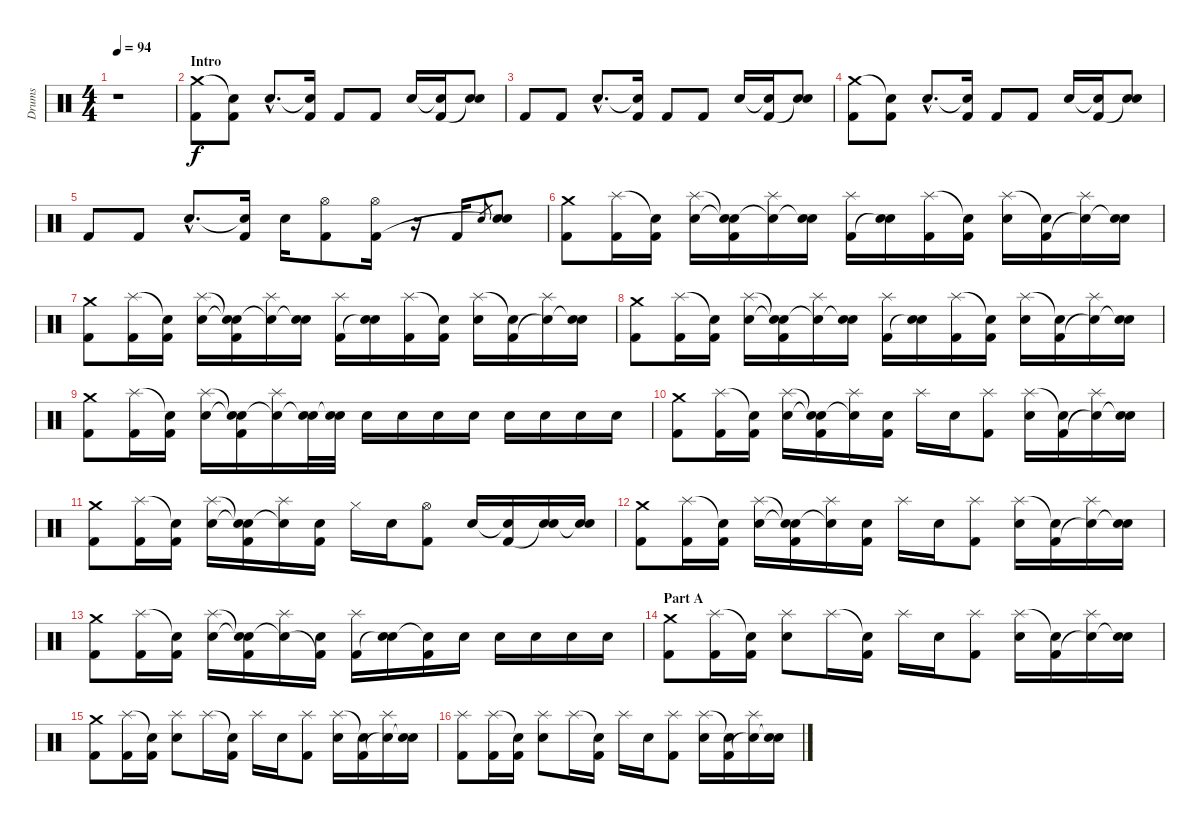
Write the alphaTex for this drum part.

\track ("Drums" "Drums") {instrument percussion}
\staff {score}
\articulation defaults
\ts (4 4)
\tempo 94
\clef neutral
\ks c
r.1{dy f} |
\section ("" "Intro")
("Crash medium (hit)" "Kick (hit) 2").8 ("Snare (hit)"{t} "Kick (hit) 2").8 "Electric Snare (hit)"{hac}.8{d} ("Snare (hit)"{t} "Kick (hit) 2").16 "Kick (hit) 2".8 "Kick (hit) 2".8 "Electric Snare (hit)".16 ("Snare (hit)"{t} "Kick (hit) 2").16 ("Electric Snare (hit)" "Snare (hit)"{t}).8 |
"Kick (hit) 2".8 "Kick (hit) 2".8 "Electric Snare (hit)"{hac}.8{d} ("Snare (hit)"{t} "Kick (hit) 2").16 "Kick (hit) 2".8 "Kick (hit) 2".8 "Electric Snare (hit)".16 ("Snare (hit)"{t} "Kick (hit) 2").16 ("Electric Snare (hit)" "Snare (hit)"{t}).8 |
("Crash medium (hit)" "Kick (hit) 2").8 ("Snare (hit)"{t} "Kick (hit) 2").8 "Electric Snare (hit)"{hac}.8{d} ("Snare (hit)"{t} "Kick (hit) 2").16 "Kick (hit) 2".8 "Kick (hit) 2".8 "Electric Snare (hit)".16 ("Snare (hit)"{t} "Kick (hit) 2").16 ("Electric Snare (hit)" "Snare (hit)"{t}).8 |
"Kick (hit) 2".8 "Kick (hit) 2".8 "Electric Snare (hit)"{hac}.8{d} ("Snare (hit)"{t} "Kick (hit) 2").16 "Electric Snare (hit)".16 ("Hi-Hat (open)" "Kick (hit) 2").8 ("Hi-Hat (open)" "Kick (hit) 2").16 r.16 "Kick (hit) 2".16 "Electric Snare (hit)".8{gr} ("Electric Snare (hit)" "Snare (hit)"{t}).8 |
("Crash medium (hit)" "Kick (hit) 2").8 ("Splash (hit)" "Kick (hit) 2").16 ("Snare (hit)"{t} "Kick (hit) 2").16 ("Splash (hit)" "Electric Snare (hit)").16 ("Snare (hit)"{t} "Snare (hit)"{t} "Kick (hit) 2").16 ("Splash (hit)" "Snare (hit)"{t}).16 ("Electric Snare (hit)" "Snare (hit)"{t}).16 ("Splash (hit)" "Kick (hit) 2").16 ("Electric Snare (hit)" "Snare (hit)"{t}).16 ("Splash (hit)" "Kick (hit) 2").16 ("Snare (hit)"{t} "Kick (hit) 2").16 ("Splash (hit)" "Electric Snare (hit)").16 ("Snare (hit)"{t} "Kick (hit) 2").16 ("Splash (hit)" "Snare (hit)"{t}).16 ("Electric Snare (hit)" "Snare (hit)"{t}).16 |
("Crash medium (hit)" "Kick (hit) 2").8 ("Splash (hit)" "Kick (hit) 2").16 ("Snare (hit)"{t} "Kick (hit) 2").16 ("Splash (hit)" "Electric Snare (hit)").16 ("Snare (hit)"{t} "Snare (hit)"{t} "Kick (hit) 2").16 ("Splash (hit)" "Snare (hit)"{t}).16 ("Electric Snare (hit)" "Snare (hit)"{t}).16 ("Splash (hit)" "Kick (hit) 2").16 ("Electric Snare (hit)" "Snare (hit)"{t}).16 ("Splash (hit)" "Kick (hit) 2").16 ("Snare (hit)"{t} "Kick (hit) 2").16 ("Splash (hit)" "Electric Snare (hit)").16 ("Snare (hit)"{t} "Kick (hit) 2").16 ("Splash (hit)" "Snare (hit)"{t}).16 ("Electric Snare (hit)" "Snare (hit)"{t}).16 |
("Crash medium (hit)" "Kick (hit) 2").8 ("Splash (hit)" "Kick (hit) 2").16 ("Snare (hit)"{t} "Kick (hit) 2").16 ("Splash (hit)" "Electric Snare (hit)").16 ("Snare (hit)"{t} "Snare (hit)"{t} "Kick (hit) 2").16 ("Splash (hit)" "Snare (hit)"{t}).16 ("Electric Snare (hit)" "Snare (hit)"{t}).16 ("Splash (hit)" "Kick (hit) 2").16 ("Electric Snare (hit)" "Snare (hit)"{t}).16 ("Splash (hit)" "Kick (hit) 2").16 ("Snare (hit)"{t} "Kick (hit) 2").16 ("Splash (hit)" "Electric Snare (hit)").16 ("Snare (hit)"{t} "Kick (hit) 2").16 ("Splash (hit)" "Snare (hit)"{t}).16 ("Electric Snare (hit)" "Snare (hit)"{t}).16 |
("Crash medium (hit)" "Kick (hit) 2").8 ("Splash (hit)" "Kick (hit) 2").16 ("Snare (hit)"{t} "Kick (hit) 2").16 ("Splash (hit)" "Electric Snare (hit)").16 ("Snare (hit)"{t} "Snare (hit)"{t} "Kick (hit) 2").16 ("Splash (hit)" "Snare (hit)"{t}).16 ("Electric Snare (hit)" "Snare (hit)"{t}).32 ("Electric Snare (hit)" "Snare (hit)"{t}).32 "Electric Snare (hit)".16 "Electric Snare (hit)".16 "Electric Snare (hit)".16 "Electric Snare (hit)".16 "Electric Snare (hit)".16 "Electric Snare (hit)".16 "Electric Snare (hit)".16 "Electric Snare (hit)".16 |
("Crash medium (hit)" "Kick (hit) 2").8 ("Splash (hit)" "Kick (hit) 2").16 ("Snare (hit)"{t} "Kick (hit) 2").16 ("Splash (hit)" "Electric Snare (hit)").16 ("Snare (hit)"{t} "Snare (hit)"{t} "Kick (hit) 2").16 ("Splash (hit)" "Snare (hit)"{t}).16 ("Electric Snare (hit)" "Kick (hit) 2").16 "Splash (hit)".16 "Electric Snare (hit)".16 ("Splash (hit)" "Kick (hit) 2").8 ("Splash (hit)" "Electric Snare (hit)").16 ("Snare (hit)"{t} "Kick (hit) 2").16 ("Splash (hit)" "Snare (hit)"{t}).16 ("Electric Snare (hit)" "Snare (hit)"{t}).16 |
("Crash medium (hit)" "Kick (hit) 2").8 ("Splash (hit)" "Kick (hit) 2").16 ("Snare (hit)"{t} "Kick (hit) 2").16 ("Splash (hit)" "Electric Snare (hit)").16 ("Snare (hit)"{t} "Snare (hit)"{t} "Kick (hit) 2").16 ("Splash (hit)" "Snare (hit)"{t}).16 ("Electric Snare (hit)" "Kick (hit) 2").16 "Hi-Hat (closed)".16 "Electric Snare (hit)".16 ("Hi-Hat (open)" "Kick (hit) 2").8 "Electric Snare (hit)".16 ("Snare (hit)"{t} "Kick (hit) 2").16 ("Electric Snare (hit)" "Snare (hit)"{t}).16 ("Electric Snare (hit)" "Snare (hit)"{t}).16 |
("Crash medium (hit)" "Kick (hit) 2").8 ("Splash (hit)" "Kick (hit) 2").16 ("Snare (hit)"{t} "Kick (hit) 2").16 ("Splash (hit)" "Electric Snare (hit)").16 ("Snare (hit)"{t} "Snare (hit)"{t} "Kick (hit) 2").16 ("Splash (hit)" "Snare (hit)"{t}).16 ("Electric Snare (hit)" "Kick (hit) 2").16 "Splash (hit)".16 "Electric Snare (hit)".16 ("Splash (hit)" "Kick (hit) 2").8 ("Splash (hit)" "Electric Snare (hit)").16 ("Snare (hit)"{t} "Kick (hit) 2").16 ("Splash (hit)" "Snare (hit)"{t}).16 ("Electric Snare (hit)" "Snare (hit)"{t}).16 |
("Crash medium (hit)" "Kick (hit) 2").8 ("Splash (hit)" "Kick (hit) 2").16 ("Snare (hit)"{t} "Kick (hit) 2").16 ("Splash (hit)" "Electric Snare (hit)").16 ("Snare (hit)"{t} "Snare (hit)"{t} "Kick (hit) 2").16 ("Splash (hit)" "Snare (hit)"{t}).16 ("Electric Snare (hit)" "Kick (hit) 2"{t}).16 ("Splash (hit)" "Kick (hit) 2").16 ("Electric Snare (hit)" "Snare (hit)"{t}).16 ("Snare (hit)"{t} "Kick (hit) 2").16 "Electric Snare (hit)".16 "Electric Snare (hit)".16 "Electric Snare (hit)".16 "Electric Snare (hit)".16 "Electric Snare (hit)".16 |
\section ("" "Part A")
("Crash medium (hit)" "Kick (hit) 2").8 ("Splash (hit)" "Kick (hit) 2").16 ("Snare (hit)"{t} "Kick (hit) 2").16 ("Splash (hit)" "Electric Snare (hit)").8 "Splash (hit)".16 ("Snare (hit)"{t} "Kick (hit) 2").16 "Splash (hit)".16 "Electric Snare (hit)".16 ("Splash (hit)" "Kick (hit) 2").8 ("Splash (hit)" "Electric Snare (hit)").16 ("Snare (hit)"{t} "Kick (hit) 2").16 ("Splash (hit)" "Snare (hit)"{t}).16 ("Electric Snare (hit)" "Snare (hit)"{t}).16 |
("Crash medium (hit)" "Kick (hit) 2").8 ("Splash (hit)" "Kick (hit) 2").16 ("Snare (hit)"{t} "Kick (hit) 2").16 ("Splash (hit)" "Electric Snare (hit)").8 "Splash (hit)".16 ("Snare (hit)"{t} "Kick (hit) 2").16 "Splash (hit)".16 "Electric Snare (hit)".16 ("Splash (hit)" "Kick (hit) 2").8 ("Splash (hit)" "Electric Snare (hit)").16 ("Snare (hit)"{t} "Kick (hit) 2").16 ("Splash (hit)" "Snare (hit)"{t}).16 ("Electric Snare (hit)" "Snare (hit)"{t}).16 |
("Splash (hit)" "Kick (hit) 2").8 ("Splash (hit)" "Kick (hit) 2").16 ("Snare (hit)"{t} "Kick (hit) 2").16 ("Splash (hit)" "Electric Snare (hit)").8 "Splash (hit)".16 ("Snare (hit)"{t} "Kick (hit) 2").16 "Splash (hit)".16 "Electric Snare (hit)".16 ("Splash (hit)" "Kick (hit) 2").8 ("Splash (hit)" "Electric Snare (hit)").16 ("Snare (hit)"{t} "Kick (hit) 2").16 ("Splash (hit)" "Snare (hit)"{t}).16 ("Electric Snare (hit)" "Snare (hit)"{t}).16
